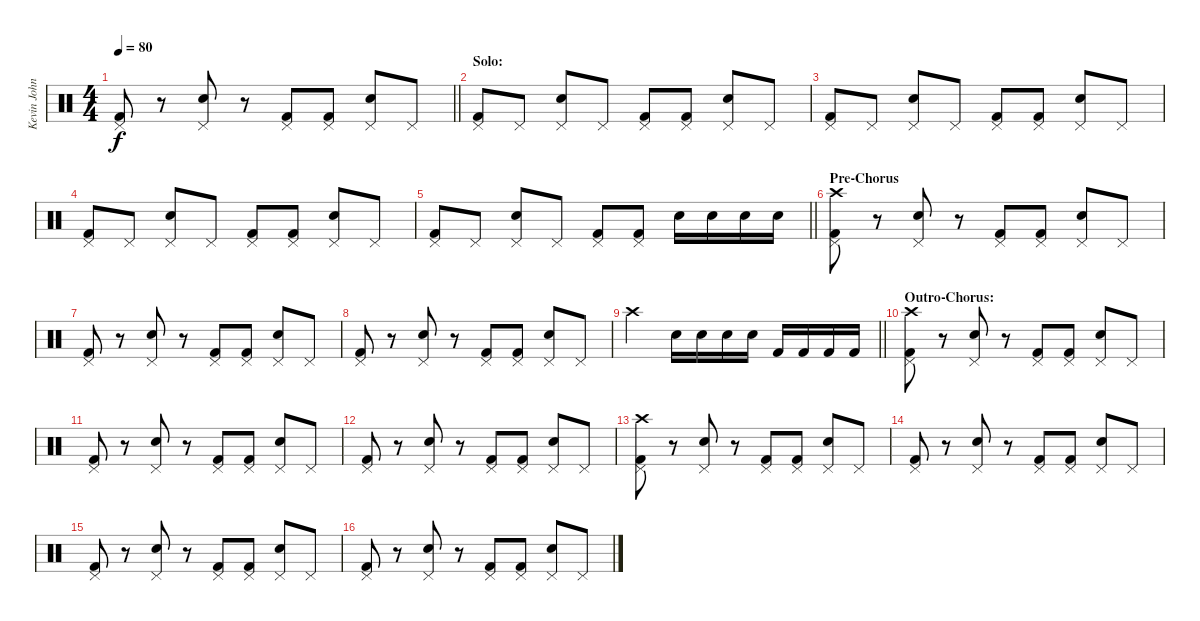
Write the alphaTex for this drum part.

\track ("Kevin John Grace" "Kevin John") {instrument percussion}
\staff {score}
\articulation defaults
\ts (4 4)
\tempo 80
\clef neutral
\barLineRight lightlight
\ks c
("Pedal Hi-Hat (hit)" "Kick (hit) 2").8{dy f} r.8 ("Pedal Hi-Hat (hit)" "Snare (hit) 2").8 r.8 ("Pedal Hi-Hat (hit)" "Kick (hit) 2").8 ("Pedal Hi-Hat (hit)" "Kick (hit) 2").8 ("Pedal Hi-Hat (hit)" "Snare (hit) 2").8 "Pedal Hi-Hat (hit)".8 |
\section ("" "Solo:")
("Pedal Hi-Hat (hit)" "Kick (hit) 2").8 "Pedal Hi-Hat (hit)".8 ("Pedal Hi-Hat (hit)" "Snare (hit) 2").8 "Pedal Hi-Hat (hit)".8 ("Pedal Hi-Hat (hit)" "Kick (hit) 2").8 ("Pedal Hi-Hat (hit)" "Kick (hit) 2").8 ("Pedal Hi-Hat (hit)" "Snare (hit) 2").8 "Pedal Hi-Hat (hit)".8 |
("Pedal Hi-Hat (hit)" "Kick (hit) 2").8 "Pedal Hi-Hat (hit)".8 ("Pedal Hi-Hat (hit)" "Snare (hit) 2").8 "Pedal Hi-Hat (hit)".8 ("Pedal Hi-Hat (hit)" "Kick (hit) 2").8 ("Pedal Hi-Hat (hit)" "Kick (hit) 2").8 ("Pedal Hi-Hat (hit)" "Snare (hit) 2").8 "Pedal Hi-Hat (hit)".8 |
("Pedal Hi-Hat (hit)" "Kick (hit) 2").8 "Pedal Hi-Hat (hit)".8 ("Pedal Hi-Hat (hit)" "Snare (hit) 2").8 "Pedal Hi-Hat (hit)".8 ("Pedal Hi-Hat (hit)" "Kick (hit) 2").8 ("Pedal Hi-Hat (hit)" "Kick (hit) 2").8 ("Pedal Hi-Hat (hit)" "Snare (hit) 2").8 "Pedal Hi-Hat (hit)".8 |
\barLineRight lightlight
("Pedal Hi-Hat (hit)" "Kick (hit) 2").8 "Pedal Hi-Hat (hit)".8 ("Pedal Hi-Hat (hit)" "Snare (hit) 2").8 "Pedal Hi-Hat (hit)".8 ("Pedal Hi-Hat (hit)" "Kick (hit) 2").8 ("Pedal Hi-Hat (hit)" "Kick (hit) 2").8 "Snare (hit) 2".16 "Snare (hit) 2".16 "Snare (hit) 2".16 "Snare (hit) 2".16 |
\section ("" "Pre-Chorus")
("Pedal Hi-Hat (hit)" "Crash high (hit)" "Kick (hit) 2").8 r.8 ("Pedal Hi-Hat (hit)" "Snare (hit) 2").8 r.8 ("Pedal Hi-Hat (hit)" "Kick (hit) 2").8 ("Pedal Hi-Hat (hit)" "Kick (hit) 2").8 ("Pedal Hi-Hat (hit)" "Snare (hit) 2").8 "Pedal Hi-Hat (hit)".8 |
("Pedal Hi-Hat (hit)" "Kick (hit) 2").8 r.8 ("Pedal Hi-Hat (hit)" "Snare (hit) 2").8 r.8 ("Pedal Hi-Hat (hit)" "Kick (hit) 2").8 ("Pedal Hi-Hat (hit)" "Kick (hit) 2").8 ("Pedal Hi-Hat (hit)" "Snare (hit) 2").8 "Pedal Hi-Hat (hit)".8 |
("Pedal Hi-Hat (hit)" "Kick (hit) 2").8 r.8 ("Pedal Hi-Hat (hit)" "Snare (hit) 2").8 r.8 ("Pedal Hi-Hat (hit)" "Kick (hit) 2").8 ("Pedal Hi-Hat (hit)" "Kick (hit) 2").8 ("Pedal Hi-Hat (hit)" "Snare (hit) 2").8 "Pedal Hi-Hat (hit)".8 |
\barLineRight lightlight "Crash high (hit)".2 "Snare (hit) 2".16 "Snare (hit) 2".16 "Snare (hit) 2".16 "Snare (hit) 2".16 "Kick (hit) 2".16 "Kick (hit) 2".16 "Kick (hit) 2".16 "Kick (hit) 2".16
|
\section ("" "Outro-Chorus:")
("Pedal Hi-Hat (hit)" "Crash high (hit)" "Kick (hit) 2").8 r.8 ("Pedal Hi-Hat (hit)" "Snare (hit) 2").8 r.8 ("Pedal Hi-Hat (hit)" "Kick (hit) 2").8 ("Pedal Hi-Hat (hit)" "Kick (hit) 2").8 ("Pedal Hi-Hat (hit)" "Snare (hit) 2").8 "Pedal Hi-Hat (hit)".8 |
("Pedal Hi-Hat (hit)" "Kick (hit) 2").8 r.8 ("Pedal Hi-Hat (hit)" "Snare (hit) 2").8 r.8 ("Pedal Hi-Hat (hit)" "Kick (hit) 2").8 ("Pedal Hi-Hat (hit)" "Kick (hit) 2").8 ("Pedal Hi-Hat (hit)" "Snare (hit) 2").8 "Pedal Hi-Hat (hit)".8 |
("Pedal Hi-Hat (hit)" "Kick (hit) 2").8 r.8 ("Pedal Hi-Hat (hit)" "Snare (hit) 2").8 r.8 ("Pedal Hi-Hat (hit)" "Kick (hit) 2").8 ("Pedal Hi-Hat (hit)" "Kick (hit) 2").8 ("Pedal Hi-Hat (hit)" "Snare (hit) 2").8 "Pedal Hi-Hat (hit)".8 |
("Pedal Hi-Hat (hit)" "Crash high (hit)" "Kick (hit) 2").8 r.8 ("Pedal Hi-Hat (hit)" "Snare (hit) 2").8 r.8 ("Pedal Hi-Hat (hit)" "Kick (hit) 2").8 ("Pedal Hi-Hat (hit)" "Kick (hit) 2").8 ("Pedal Hi-Hat (hit)" "Snare (hit) 2").8 "Pedal Hi-Hat (hit)".8 |
("Pedal Hi-Hat (hit)" "Kick (hit) 2").8 r.8 ("Pedal Hi-Hat (hit)" "Snare (hit) 2").8 r.8 ("Pedal Hi-Hat (hit)" "Kick (hit) 2").8 ("Pedal Hi-Hat (hit)" "Kick (hit) 2").8 ("Pedal Hi-Hat (hit)" "Snare (hit) 2").8 "Pedal Hi-Hat (hit)".8 |
("Pedal Hi-Hat (hit)" "Kick (hit) 2").8 r.8 ("Pedal Hi-Hat (hit)" "Snare (hit) 2").8 r.8 ("Pedal Hi-Hat (hit)" "Kick (hit) 2").8 ("Pedal Hi-Hat (hit)" "Kick (hit) 2").8 ("Pedal Hi-Hat (hit)" "Snare (hit) 2").8 "Pedal Hi-Hat (hit)".8 |
("Pedal Hi-Hat (hit)" "Kick (hit) 2").8 r.8 ("Pedal Hi-Hat (hit)" "Snare (hit) 2").8 r.8 ("Pedal Hi-Hat (hit)" "Kick (hit) 2").8 ("Pedal Hi-Hat (hit)" "Kick (hit) 2").8 ("Pedal Hi-Hat (hit)" "Snare (hit) 2").8 "Pedal Hi-Hat (hit)".8
